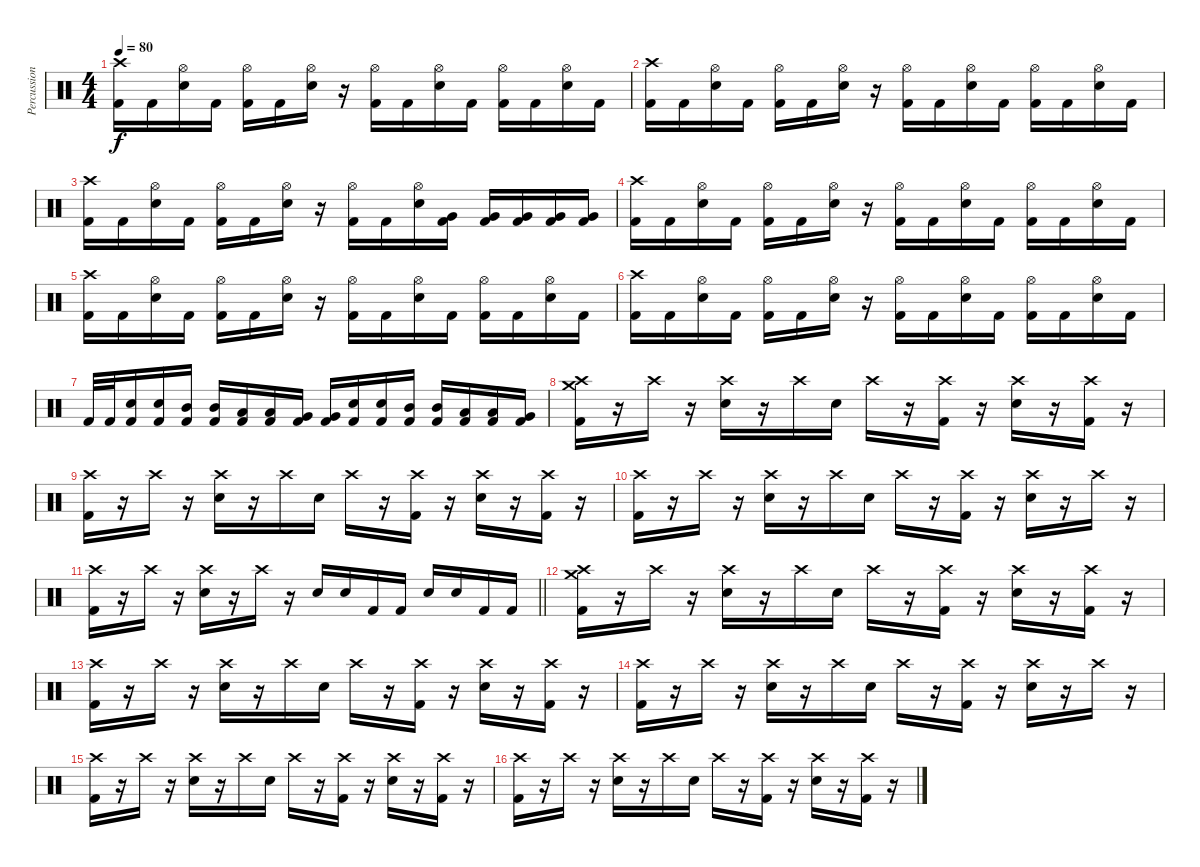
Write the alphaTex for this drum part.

\track ("Percussion" "Percussion") {instrument percussion}
\staff {score}
\articulation defaults
\ts (4 4)
\tempo 80
\clef neutral
\ks c
("Crash high (hit)" "Kick (hit) 2").16{dy f} "Kick (hit) 2".16 ("Hi-Hat (open)" "Electric Snare (hit)").16 "Kick (hit) 2".16 ("Hi-Hat (open)" "Kick (hit) 2").16 "Kick (hit) 2".16 ("Hi-Hat (open)" "Electric Snare (hit)").16 r.16 ("Hi-Hat (open)" "Kick (hit) 2").16 "Kick (hit) 2".16 ("Hi-Hat (open)" "Electric Snare (hit)").16 "Kick (hit) 2".16 ("Hi-Hat (open)" "Kick (hit) 2").16 "Kick (hit) 2".16 ("Hi-Hat (open)" "Electric Snare (hit)").16 "Kick (hit) 2".16 |
("Crash high (hit)" "Kick (hit) 2").16 "Kick (hit) 2".16 ("Hi-Hat (open)" "Electric Snare (hit)").16 "Kick (hit) 2".16 ("Hi-Hat (open)" "Kick (hit) 2").16 "Kick (hit) 2".16 ("Hi-Hat (open)" "Electric Snare (hit)").16 r.16 ("Hi-Hat (open)" "Kick (hit) 2").16 "Kick (hit) 2".16 ("Hi-Hat (open)" "Electric Snare (hit)").16 "Kick (hit) 2".16 ("Hi-Hat (open)" "Kick (hit) 2").16 "Kick (hit) 2".16 ("Hi-Hat (open)" "Electric Snare (hit)").16 "Kick (hit) 2".16 |
("Crash high (hit)" "Kick (hit) 2").16 "Kick (hit) 2".16 ("Hi-Hat (open)" "Electric Snare (hit)").16 "Kick (hit) 2".16 ("Hi-Hat (open)" "Kick (hit) 2").16 "Kick (hit) 2".16 ("Hi-Hat (open)" "Electric Snare (hit)").16 r.16 ("Hi-Hat (open)" "Kick (hit) 2").16 "Kick (hit) 2".16 ("Hi-Hat (open)" "Electric Snare (hit)").16 ("Very Low Tom (hit)" "Kick (hit) 2").16 ("Very Low Tom (hit)" "Kick (hit) 2").16 ("Very Low Tom (hit)" "Kick (hit) 2").16 ("Very Low Tom (hit)" "Kick (hit) 2").16 ("Very Low Tom (hit)" "Kick (hit) 2").16 |
("Crash high (hit)" "Kick (hit) 2").16 "Kick (hit) 2".16 ("Hi-Hat (open)" "Electric Snare (hit)").16 "Kick (hit) 2".16 ("Hi-Hat (open)" "Kick (hit) 2").16 "Kick (hit) 2".16 ("Hi-Hat (open)" "Electric Snare (hit)").16 r.16 ("Hi-Hat (open)" "Kick (hit) 2").16 "Kick (hit) 2".16 ("Hi-Hat (open)" "Electric Snare (hit)").16 "Kick (hit) 2".16 ("Hi-Hat (open)" "Kick (hit) 2").16 "Kick (hit) 2".16 ("Hi-Hat (open)" "Electric Snare (hit)").16 "Kick (hit) 2".16 |
("Crash high (hit)" "Kick (hit) 2").16 "Kick (hit) 2".16 ("Hi-Hat (open)" "Electric Snare (hit)").16 "Kick (hit) 2".16 ("Hi-Hat (open)" "Kick (hit) 2").16 "Kick (hit) 2".16 ("Hi-Hat (open)" "Electric Snare (hit)").16 r.16 ("Hi-Hat (open)" "Kick (hit) 2").16 "Kick (hit) 2".16 ("Hi-Hat (open)" "Electric Snare (hit)").16 "Kick (hit) 2".16 ("Hi-Hat (open)" "Kick (hit) 2").16 "Kick (hit) 2".16 ("Hi-Hat (open)" "Electric Snare (hit)").16 "Kick (hit) 2".16 |
("Crash high (hit)" "Kick (hit) 2").16 "Kick (hit) 2".16 ("Hi-Hat (open)" "Electric Snare (hit)").16 "Kick (hit) 2".16 ("Hi-Hat (open)" "Kick (hit) 2").16 "Kick (hit) 2".16 ("Hi-Hat (open)" "Electric Snare (hit)").16 r.16 ("Hi-Hat (open)" "Kick (hit) 2").16 "Kick (hit) 2".16 ("Hi-Hat (open)" "Electric Snare (hit)").16 "Kick (hit) 2".16 ("Hi-Hat (open)" "Kick (hit) 2").16 "Kick (hit) 2".16 ("Hi-Hat (open)" "Electric Snare (hit)").16 "Kick (hit) 2".16 |
"Kick (hit) 2".32 "Kick (hit) 2".32 ("Electric Snare (hit)" "Kick (hit) 2").16 ("Electric Snare (hit)" "Kick (hit) 2").16 ("Mid Tom (hit)" "Kick (hit) 2").16 ("Mid Tom (hit)" "Kick (hit) 2").16 ("Low Tom (hit)" "Kick (hit) 2").16 ("Low Tom (hit)" "Kick (hit) 2").16 ("Very Low Tom (hit)" "Kick (hit) 2").16 ("Very Low Tom (hit)" "Kick (hit) 2").16 ("Electric Snare (hit)" "Kick (hit) 2").16 ("Electric Snare (hit)" "Kick (hit) 2").16 ("Mid Tom (hit)" "Kick (hit) 2").16 ("Mid Tom (hit)" "Kick (hit) 2").16 ("Low Tom (hit)" "Kick (hit) 2").16 ("Low Tom (hit)" "Kick (hit) 2").16 ("Very Low Tom (hit)" "Kick (hit) 2").16 |
("Crash medium (hit)" "Crash high (hit)" "Kick (hit) 2").16{volume 0} r.16 "Crash high (hit)".16 r.16 ("Crash high (hit)" "Electric Snare (hit)").16 r.16 "Crash high (hit)".16 "Electric Snare (hit)".16 "Crash high (hit)".16 r.16 ("Crash high (hit)" "Kick (hit) 2").16 r.16 ("Crash high (hit)" "Electric Snare (hit)").16 r.16 ("Crash high (hit)" "Kick (hit) 2").16 r.16 |
("Crash high (hit)" "Kick (hit) 2").16 r.16 "Crash high (hit)".16 r.16 ("Crash high (hit)" "Electric Snare (hit)").16 r.16 "Crash high (hit)".16 "Electric Snare (hit)".16 "Crash high (hit)".16 r.16 ("Crash high (hit)" "Kick (hit) 2").16 r.16 ("Crash high (hit)" "Electric Snare (hit)").16 r.16 ("Crash high (hit)" "Kick (hit) 2").16 r.16 |
("Crash high (hit)" "Kick (hit) 2").16 r.16 "Crash high (hit)".16 r.16 ("Crash high (hit)" "Electric Snare (hit)").16 r.16 "Crash high (hit)".16 "Electric Snare (hit)".16 "Crash high (hit)".16 r.16 ("Crash high (hit)" "Kick (hit) 2").16 r.16 ("Crash high (hit)" "Electric Snare (hit)").16 r.16 "Crash high (hit)".16 r.16 |
\barLineRight lightlight
("Crash high (hit)" "Kick (hit) 2").16 r.16 "Crash high (hit)".16 r.16 ("Crash high (hit)" "Electric Snare (hit)").16 r.16 "Crash high (hit)".16 r.16 "Electric Snare (hit)".16 "Electric Snare (hit)".16 "Kick (hit) 2".16 "Kick (hit) 2".16 "Electric Snare (hit)".16 "Electric Snare (hit)".16 "Kick (hit) 2".16 "Kick (hit) 2".16 |
("Crash medium (hit)" "Crash high (hit)" "Kick (hit) 2").16 r.16 "Crash high (hit)".16 r.16 ("Crash high (hit)" "Electric Snare (hit)").16 r.16 "Crash high (hit)".16 "Electric Snare (hit)".16 "Crash high (hit)".16 r.16 ("Crash high (hit)" "Kick (hit) 2").16 r.16 ("Crash high (hit)" "Electric Snare (hit)").16 r.16 ("Crash high (hit)" "Kick (hit) 2").16 r.16 |
("Crash high (hit)" "Kick (hit) 2").16 r.16 "Crash high (hit)".16 r.16 ("Crash high (hit)" "Electric Snare (hit)").16 r.16 "Crash high (hit)".16 "Electric Snare (hit)".16 "Crash high (hit)".16 r.16 ("Crash high (hit)" "Kick (hit) 2").16 r.16 ("Crash high (hit)" "Electric Snare (hit)").16 r.16 ("Crash high (hit)" "Kick (hit) 2").16 r.16 |
("Crash high (hit)" "Kick (hit) 2").16 r.16 "Crash high (hit)".16 r.16 ("Crash high (hit)" "Electric Snare (hit)").16 r.16 "Crash high (hit)".16 "Electric Snare (hit)".16 "Crash high (hit)".16 r.16 ("Crash high (hit)" "Kick (hit) 2").16 r.16 ("Crash high (hit)" "Electric Snare (hit)").16 r.16 "Crash high (hit)".16 r.16 |
("Crash high (hit)" "Kick (hit) 2").16 r.16 "Crash high (hit)".16 r.16 ("Crash high (hit)" "Electric Snare (hit)").16 r.16 "Crash high (hit)".16 "Electric Snare (hit)".16 "Crash high (hit)".16 r.16 ("Crash high (hit)" "Kick (hit) 2").16 r.16 ("Crash high (hit)" "Electric Snare (hit)").16 r.16 ("Crash high (hit)" "Kick (hit) 2").16 r.16 |
("Crash high (hit)" "Kick (hit) 2").16 r.16 "Crash high (hit)".16 r.16 ("Crash high (hit)" "Electric Snare (hit)").16 r.16 "Crash high (hit)".16 "Electric Snare (hit)".16 "Crash high (hit)".16 r.16 ("Crash high (hit)" "Kick (hit) 2").16 r.16 ("Crash high (hit)" "Electric Snare (hit)").16 r.16 ("Crash high (hit)" "Kick (hit) 2").16 r.16
